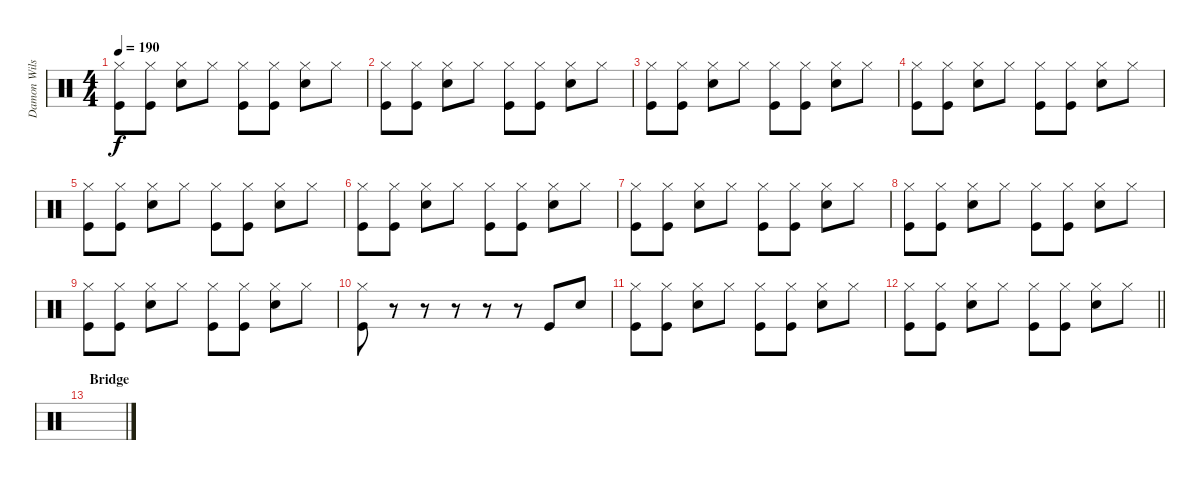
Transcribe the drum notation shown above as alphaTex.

\track ("Damon Wilson" "Damon Wils") {instrument percussion}
\staff {score}
\articulation defaults
\ts (4 4)
\tempo 190
\clef neutral
\ks c
("Hi-Hat (closed)" "Kick (hit)").8{dy f} ("Hi-Hat (closed)" "Kick (hit)").8 ("Hi-Hat (closed)" "Snare (hit) 2").8 "Hi-Hat (closed)".8 ("Hi-Hat (closed)" "Kick (hit)").8 ("Hi-Hat (closed)" "Kick (hit)").8 ("Hi-Hat (closed)" "Snare (hit) 2").8 "Hi-Hat (closed)".8 |
("Hi-Hat (closed)" "Kick (hit)").8 ("Hi-Hat (closed)" "Kick (hit)").8 ("Hi-Hat (closed)" "Snare (hit) 2").8 "Hi-Hat (closed)".8 ("Hi-Hat (closed)" "Kick (hit)").8 ("Hi-Hat (closed)" "Kick (hit)").8 ("Hi-Hat (closed)" "Snare (hit) 2").8 "Hi-Hat (closed)".8 |
("Hi-Hat (closed)" "Kick (hit)").8 ("Hi-Hat (closed)" "Kick (hit)").8 ("Hi-Hat (closed)" "Snare (hit) 2").8 "Hi-Hat (closed)".8 ("Hi-Hat (closed)" "Kick (hit)").8 ("Hi-Hat (closed)" "Kick (hit)").8 ("Hi-Hat (closed)" "Snare (hit) 2").8 "Hi-Hat (closed)".8 |
("Hi-Hat (closed)" "Kick (hit)").8 ("Hi-Hat (closed)" "Kick (hit)").8 ("Hi-Hat (closed)" "Snare (hit) 2").8 "Hi-Hat (closed)".8 ("Hi-Hat (closed)" "Kick (hit)").8 ("Hi-Hat (closed)" "Kick (hit)").8 ("Hi-Hat (closed)" "Snare (hit) 2").8 "Hi-Hat (closed)".8 |
("Hi-Hat (closed)" "Kick (hit)").8 ("Hi-Hat (closed)" "Kick (hit)").8 ("Hi-Hat (closed)" "Snare (hit) 2").8 "Hi-Hat (closed)".8 ("Hi-Hat (closed)" "Kick (hit)").8 ("Hi-Hat (closed)" "Kick (hit)").8 ("Hi-Hat (closed)" "Snare (hit) 2").8 "Hi-Hat (closed)".8 |
("Hi-Hat (closed)" "Kick (hit)").8 ("Hi-Hat (closed)" "Kick (hit)").8 ("Hi-Hat (closed)" "Snare (hit) 2").8 "Hi-Hat (closed)".8 ("Hi-Hat (closed)" "Kick (hit)").8 ("Hi-Hat (closed)" "Kick (hit)").8 ("Hi-Hat (closed)" "Snare (hit) 2").8 "Hi-Hat (closed)".8 |
("Hi-Hat (closed)" "Kick (hit)").8 ("Hi-Hat (closed)" "Kick (hit)").8 ("Hi-Hat (closed)" "Snare (hit) 2").8 "Hi-Hat (closed)".8 ("Hi-Hat (closed)" "Kick (hit)").8 ("Hi-Hat (closed)" "Kick (hit)").8 ("Hi-Hat (closed)" "Snare (hit) 2").8 "Hi-Hat (closed)".8 |
("Hi-Hat (closed)" "Kick (hit)").8 ("Hi-Hat (closed)" "Kick (hit)").8 ("Hi-Hat (closed)" "Snare (hit) 2").8 "Hi-Hat (closed)".8 ("Hi-Hat (closed)" "Kick (hit)").8 ("Hi-Hat (closed)" "Kick (hit)").8 ("Hi-Hat (closed)" "Snare (hit) 2").8 "Hi-Hat (closed)".8 |
("Hi-Hat (closed)" "Kick (hit)").8 ("Hi-Hat (closed)" "Kick (hit)").8 ("Hi-Hat (closed)" "Snare (hit) 2").8 "Hi-Hat (closed)".8 ("Hi-Hat (closed)" "Kick (hit)").8 ("Hi-Hat (closed)" "Kick (hit)").8 ("Hi-Hat (closed)" "Snare (hit) 2").8 "Hi-Hat (closed)".8 |
("Hi-Hat (closed)" "Kick (hit)").8 r.8 r.8 r.8 r.8 r.8 "Kick (hit)".8 "Snare (hit) 2".8 |
("Hi-Hat (closed)" "Kick (hit)").8 ("Hi-Hat (closed)" "Kick (hit)").8 ("Hi-Hat (closed)" "Snare (hit) 2").8 "Hi-Hat (closed)".8 ("Hi-Hat (closed)" "Kick (hit)").8 ("Hi-Hat (closed)" "Kick (hit)").8 ("Hi-Hat (closed)" "Snare (hit) 2").8 "Hi-Hat (closed)".8 |
\barLineRight lightlight
("Hi-Hat (closed)" "Kick (hit)").8 ("Hi-Hat (closed)" "Kick (hit)").8 ("Hi-Hat (closed)" "Snare (hit) 2").8 "Hi-Hat (closed)".8 ("Hi-Hat (closed)" "Kick (hit)").8 ("Hi-Hat (closed)" "Kick (hit)").8 ("Hi-Hat (closed)" "Snare (hit) 2").8 "Hi-Hat (closed)".8 |
\section ("" "Bridge")
